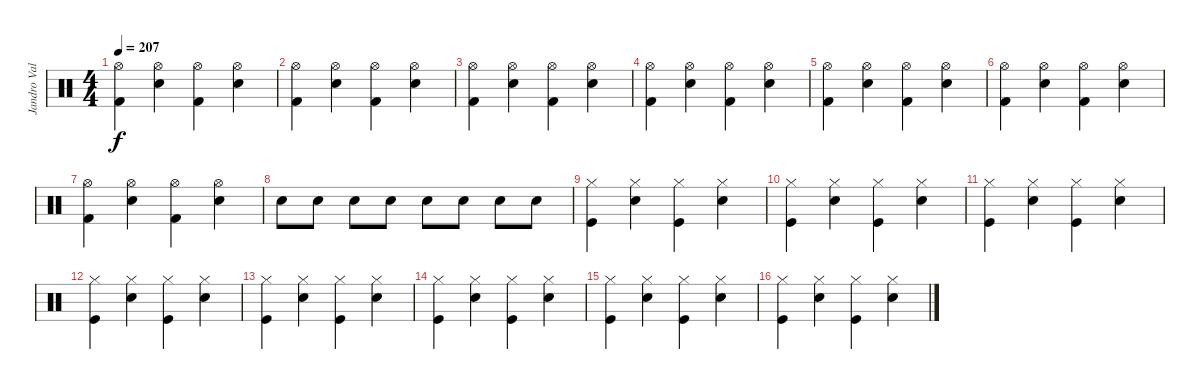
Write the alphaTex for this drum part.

\track ("Jandro Valázquez" "Jandro Val") {instrument percussion}
\staff {score}
\articulation defaults
\ts (4 4)
\tempo 207
\clef neutral
\ks c
("Hi-Hat (open)" "Kick (hit) 2").4{dy f} ("Hi-Hat (open)" "Snare (hit) 2").4 ("Hi-Hat (open)" "Kick (hit) 2").4 ("Hi-Hat (open)" "Snare (hit) 2").4 |
("Hi-Hat (open)" "Kick (hit) 2").4 ("Hi-Hat (open)" "Snare (hit) 2").4 ("Hi-Hat (open)" "Kick (hit) 2").4 ("Hi-Hat (open)" "Snare (hit) 2").4 |
("Hi-Hat (open)" "Kick (hit) 2").4 ("Hi-Hat (open)" "Snare (hit) 2").4 ("Hi-Hat (open)" "Kick (hit) 2").4 ("Hi-Hat (open)" "Snare (hit) 2").4 |
("Hi-Hat (open)" "Kick (hit) 2").4 ("Hi-Hat (open)" "Snare (hit) 2").4 ("Hi-Hat (open)" "Kick (hit) 2").4 ("Hi-Hat (open)" "Snare (hit) 2").4 |
("Hi-Hat (open)" "Kick (hit) 2").4 ("Hi-Hat (open)" "Snare (hit) 2").4 ("Hi-Hat (open)" "Kick (hit) 2").4 ("Hi-Hat (open)" "Snare (hit) 2").4 |
("Hi-Hat (open)" "Kick (hit) 2").4 ("Hi-Hat (open)" "Snare (hit) 2").4 ("Hi-Hat (open)" "Kick (hit) 2").4 ("Hi-Hat (open)" "Snare (hit) 2").4 |
("Hi-Hat (open)" "Kick (hit) 2").4 ("Hi-Hat (open)" "Snare (hit) 2").4 ("Hi-Hat (open)" "Kick (hit) 2").4 ("Hi-Hat (open)" "Snare (hit) 2").4 |
"Electric Snare (hit)".8 "Electric Snare (hit)".8 "Electric Snare (hit)".8 "Electric Snare (hit)".8 "Electric Snare (hit)".8 "Electric Snare (hit)".8 "Electric Snare (hit)".8 "Electric Snare (hit)".8 |
("Hi-Hat (closed)" "Kick (hit)").4 ("Hi-Hat (closed)" "Snare (hit) 2").4 ("Hi-Hat (closed)" "Kick (hit)").4 ("Hi-Hat (closed)" "Snare (hit) 2").4 |
("Hi-Hat (closed)" "Kick (hit)").4 ("Hi-Hat (closed)" "Snare (hit) 2").4 ("Hi-Hat (closed)" "Kick (hit)").4 ("Hi-Hat (closed)" "Snare (hit) 2").4 |
("Hi-Hat (closed)" "Kick (hit)").4 ("Hi-Hat (closed)" "Snare (hit) 2").4 ("Hi-Hat (closed)" "Kick (hit)").4 ("Hi-Hat (closed)" "Snare (hit) 2").4 |
("Hi-Hat (closed)" "Kick (hit)").4 ("Hi-Hat (closed)" "Snare (hit) 2").4 ("Hi-Hat (closed)" "Kick (hit)").4 ("Hi-Hat (closed)" "Snare (hit) 2").4 |
("Hi-Hat (closed)" "Kick (hit)").4 ("Hi-Hat (closed)" "Snare (hit) 2").4 ("Hi-Hat (closed)" "Kick (hit)").4 ("Hi-Hat (closed)" "Snare (hit) 2").4 |
("Hi-Hat (closed)" "Kick (hit)").4 ("Hi-Hat (closed)" "Snare (hit) 2").4 ("Hi-Hat (closed)" "Kick (hit)").4 ("Hi-Hat (closed)" "Snare (hit) 2").4 |
("Hi-Hat (closed)" "Kick (hit)").4 ("Hi-Hat (closed)" "Snare (hit) 2").4 ("Hi-Hat (closed)" "Kick (hit)").4 ("Hi-Hat (closed)" "Snare (hit) 2").4 |
("Hi-Hat (closed)" "Kick (hit)").4 ("Hi-Hat (closed)" "Snare (hit) 2").4 ("Hi-Hat (closed)" "Kick (hit)").4 ("Hi-Hat (closed)" "Snare (hit) 2").4
